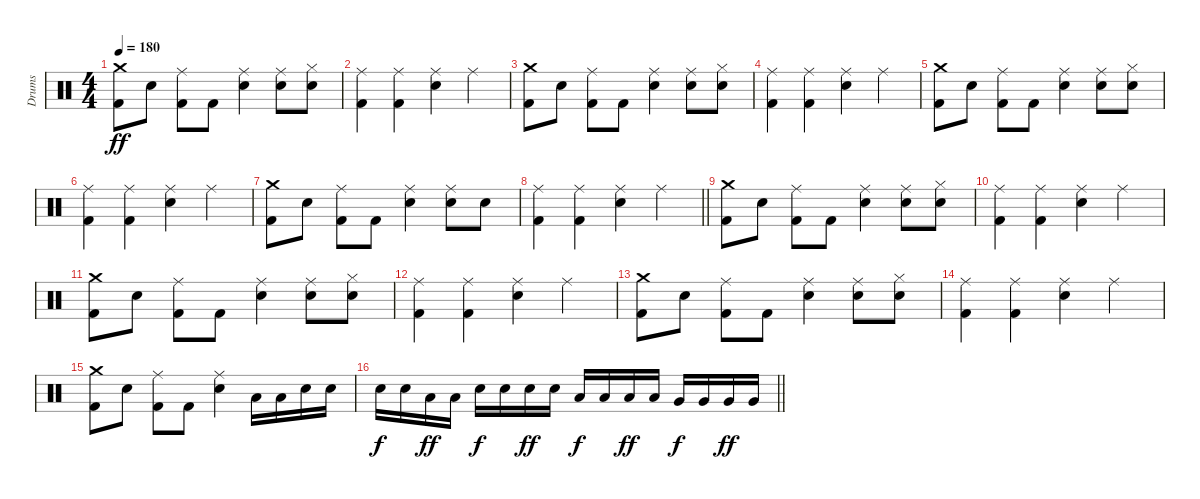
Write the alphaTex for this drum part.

\track ("Drums" "Drums") {instrument percussion}
\staff {score}
\articulation defaults
\ts (4 4)
\section ("" "")
\tempo 180
\clef neutral
\ks c
("Crash medium (hit)" "Kick (hit) 2").8{dy ff} "Electric Snare (hit)".8 ("Ride (middle)" "Kick (hit) 2").8 "Kick (hit) 2".8 ("Ride (middle)" "Electric Snare (hit)").4 ("Ride (middle)" "Electric Snare (hit)").8 ("Hi-Hat (closed)" "Electric Snare (hit)").8 |
("Ride (middle)" "Kick (hit) 2").4 ("Ride (middle)" "Kick (hit) 2").4 ("Ride (middle)" "Electric Snare (hit)").4 "Ride (middle)".4 |
("Crash medium (hit)" "Kick (hit) 2").8 "Electric Snare (hit)".8 ("Ride (middle)" "Kick (hit) 2").8 "Kick (hit) 2".8 ("Ride (middle)" "Electric Snare (hit)").4 ("Ride (middle)" "Electric Snare (hit)").8 ("Hi-Hat (closed)" "Electric Snare (hit)").8 |
("Ride (middle)" "Kick (hit) 2").4 ("Ride (middle)" "Kick (hit) 2").4 ("Ride (middle)" "Electric Snare (hit)").4 "Ride (middle)".4 |
("Crash medium (hit)" "Kick (hit) 2").8 "Electric Snare (hit)".8 ("Ride (middle)" "Kick (hit) 2").8 "Kick (hit) 2".8 ("Ride (middle)" "Electric Snare (hit)").4 ("Ride (middle)" "Electric Snare (hit)").8 ("Hi-Hat (closed)" "Electric Snare (hit)").8 |
("Ride (middle)" "Kick (hit) 2").4 ("Ride (middle)" "Kick (hit) 2").4 ("Ride (middle)" "Electric Snare (hit)").4 "Ride (middle)".4 |
("Crash medium (hit)" "Kick (hit) 2").8 "Electric Snare (hit)".8 ("Ride (middle)" "Kick (hit) 2").8 "Kick (hit) 2".8 ("Ride (middle)" "Electric Snare (hit)").4 ("Ride (middle)" "Electric Snare (hit)").8 "Electric Snare (hit)".8 |
\barLineRight lightlight
("Ride (middle)" "Kick (hit) 2").4 ("Ride (middle)" "Kick (hit) 2").4 ("Ride (middle)" "Electric Snare (hit)").4 "Ride (middle)".4 |
("Crash medium (hit)" "Kick (hit) 2").8 "Electric Snare (hit)".8 ("Ride (middle)" "Kick (hit) 2").8 "Kick (hit) 2".8 ("Ride (middle)" "Electric Snare (hit)").4 ("Ride (middle)" "Electric Snare (hit)").8 ("Hi-Hat (closed)" "Electric Snare (hit)").8 |
("Ride (middle)" "Kick (hit) 2").4 ("Ride (middle)" "Kick (hit) 2").4 ("Ride (middle)" "Electric Snare (hit)").4 "Ride (middle)".4 |
("Crash medium (hit)" "Kick (hit) 2").8 "Electric Snare (hit)".8 ("Ride (middle)" "Kick (hit) 2").8 "Kick (hit) 2".8 ("Ride (middle)" "Electric Snare (hit)").4 ("Ride (middle)" "Electric Snare (hit)").8 ("Hi-Hat (closed)" "Electric Snare (hit)").8 |
("Ride (middle)" "Kick (hit) 2").4 ("Ride (middle)" "Kick (hit) 2").4 ("Ride (middle)" "Electric Snare (hit)").4 "Ride (middle)".4 |
("Crash medium (hit)" "Kick (hit) 2").8 "Electric Snare (hit)".8 ("Ride (middle)" "Kick (hit) 2").8 "Kick (hit) 2".8 ("Ride (middle)" "Electric Snare (hit)").4 ("Ride (middle)" "Snare (hit)").8 ("Hi-Hat (closed)" "Electric Snare (hit)").8 |
("Ride (middle)" "Kick (hit) 2").4 ("Ride (middle)" "Kick (hit) 2").4 ("Ride (middle)" "Electric Snare (hit)").4 "Ride (middle)".4 |
("Crash medium (hit)" "Kick (hit) 2").8 "Electric Snare (hit)".8 ("Ride (middle)" "Kick (hit) 2").8 "Kick (hit) 2".8 ("Ride (middle)" "Electric Snare (hit)").4 "Low Tom (hit)".16 "Low Tom (hit)".16 "Electric Snare (hit)".16 "Electric Snare (hit)".16 |
\barLineRight lightlight "Electric Snare (hit)".16{dy f} "Electric Snare (hit)".16 "Low Tom (hit)".16{dy ff} "Low Tom (hit)".16 "Electric Snare (hit)".16{dy f} "Electric Snare (hit)".16 "Electric Snare (hit)".16{dy ff} "Electric Snare (hit)".16 "Low Tom (hit)".16{dy f} "Low Tom (hit)".16 "Low Tom (hit)".16{dy ff} "Low Tom (hit)".16 "Very Low Tom (hit)".16{dy f} "Very Low Tom (hit)".16 "Very Low Tom (hit)".16{dy ff} "Very Low Tom (hit)".16
